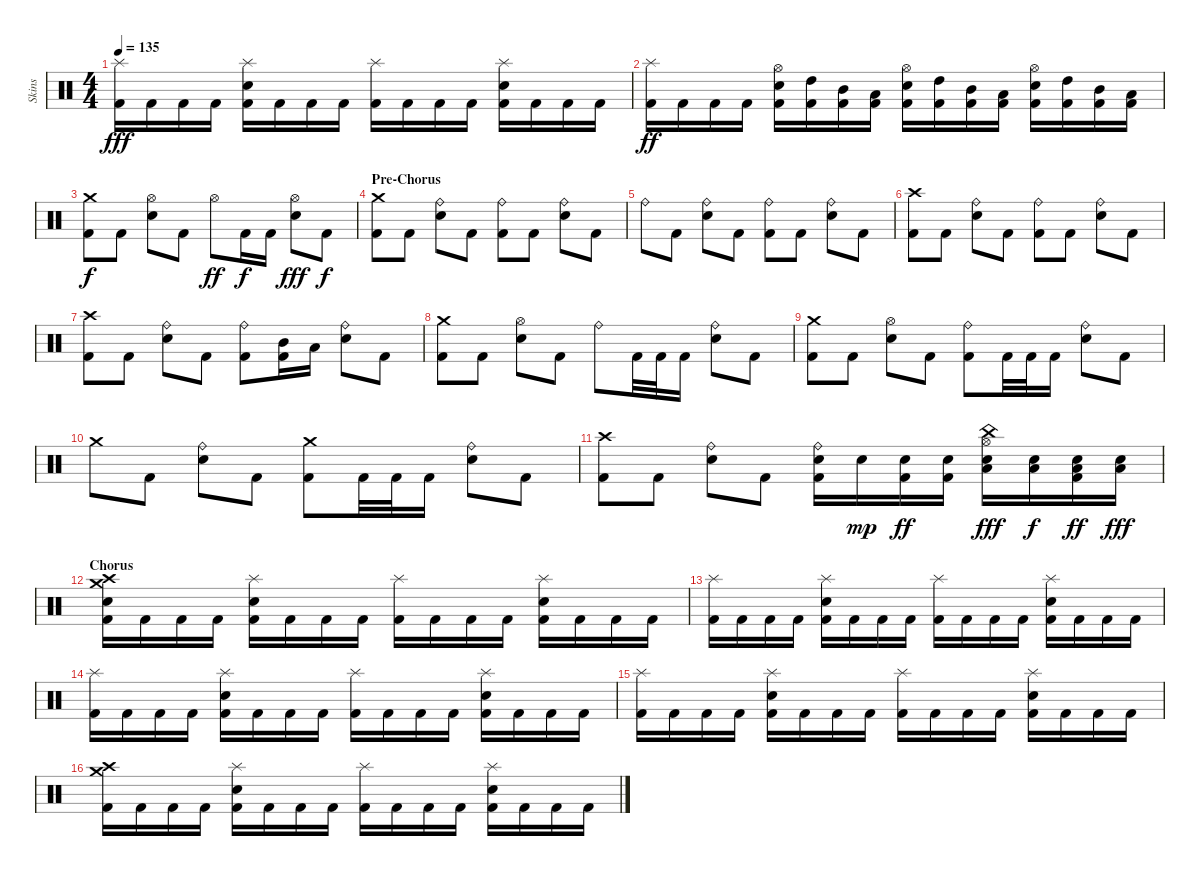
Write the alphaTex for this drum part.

\track ("Skins" "Skins") {instrument percussion}
\staff {score}
\articulation defaults
\ts (4 4)
\tempo 135
\clef neutral
\ks c
("Splash (hit)" "Kick (hit) 2").16{dy fff} "Kick (hit) 2".16 "Kick (hit) 2".16 "Kick (hit) 2".16 ("Splash (hit)" "Snare (hit) 2" "Kick (hit) 2").16 "Kick (hit) 2".16 "Kick (hit) 2".16 "Kick (hit) 2".16 ("Splash (hit)" "Kick (hit) 2").16 "Kick (hit) 2".16 "Kick (hit) 2".16 "Kick (hit) 2".16 ("Splash (hit)" "Snare (hit) 2" "Kick (hit) 2").16 "Kick (hit) 2".16 "Kick (hit) 2".16 "Kick (hit) 2".16 |
("Splash (hit)" "Kick (hit) 2").16{dy ff} "Kick (hit) 2".16 "Kick (hit) 2".16 "Kick (hit) 2".16 ("Hi-Hat (open)" "Snare (hit) 2" "Kick (hit) 2").16 ("High Tom (hit)" "Kick (hit) 2").16 ("Mid Tom (hit)" "Kick (hit) 2").16 ("Low Tom (hit)" "Kick (hit) 2").16 ("Hi-Hat (open)" "Snare (hit) 2" "Kick (hit) 2").16 ("High Tom (hit)" "Kick (hit) 2").16 ("Mid Tom (hit)" "Kick (hit) 2").16 ("Low Tom (hit)" "Kick (hit) 2").16 ("Hi-Hat (open)" "Snare (hit) 2" "Kick (hit) 2").16 ("High Tom (hit)" "Kick (hit) 2").16 ("Mid Tom (hit)" "Kick (hit) 2").16 ("Low Tom (hit)" "Kick (hit) 2").16 |
("Crash medium (hit)" "Kick (hit) 2").8{dy f} "Kick (hit) 2".8 ("Hi-Hat (open)" "Snare (hit) 2").8 "Kick (hit) 2".8 "Hi-Hat (open)".8{dy ff} "Kick (hit) 2".16{dy f} "Kick (hit) 2".16 ("Hi-Hat (open)" "Snare (hit) 2").8{dy fff} "Kick (hit) 2".8{dy f} |
\section ("" "Pre-Chorus")
("Crash medium (hit)" "Kick (hit) 2").8 "Kick (hit) 2".8 ("Ride (bell)" "Snare (hit) 2").8 "Kick (hit) 2".8 ("Ride (bell)" "Kick (hit) 2").8 "Kick (hit) 2".8 ("Ride (bell)" "Snare (hit) 2").8 "Kick (hit) 2".8 |
"Ride (bell)".8 "Kick (hit) 2".8 ("Ride (bell)" "Snare (hit) 2").8 "Kick (hit) 2".8 ("Ride (bell)" "Kick (hit) 2").8 "Kick (hit) 2".8 ("Ride (bell)" "Snare (hit) 2").8 "Kick (hit) 2".8 |
("Crash high (hit)" "Kick (hit) 2").8 "Kick (hit) 2".8 ("Ride (bell)" "Snare (hit) 2").8 "Kick (hit) 2".8 ("Ride (bell)" "Kick (hit) 2").8 "Kick (hit) 2".8 ("Ride (bell)" "Snare (hit) 2").8 "Kick (hit) 2".8 |
("Crash high (hit)" "Kick (hit) 2").8 "Kick (hit) 2".8 ("Ride (bell)" "Snare (hit) 2").8 "Kick (hit) 2".8 ("Ride (bell)" "Kick (hit) 2").8 ("Mid Tom (hit)" "Kick (hit) 2").16 "Low Tom (hit)".16 ("Ride (bell)" "Snare (hit) 2").8 "Kick (hit) 2".8 |
("Crash medium (hit)" "Kick (hit) 2").8 "Kick (hit) 2".8 ("Hi-Hat (open)" "Snare (hit) 2").8 "Kick (hit) 2".8 "Ride (bell)".8 "Kick (hit) 2".32 "Kick (hit) 2".32 "Kick (hit) 2".16 ("Ride (bell)" "Snare (hit) 2").8 "Kick (hit) 2".8 |
("Crash medium (hit)" "Kick (hit) 2").8 "Kick (hit) 2".8 ("Hi-Hat (open)" "Snare (hit) 2").8 "Kick (hit) 2".8 ("Ride (bell)" "Kick (hit) 2").8 "Kick (hit) 2".32 "Kick (hit) 2".32 "Kick (hit) 2".16 ("Ride (bell)" "Snare (hit) 2").8 "Kick (hit) 2".8 |
"Crash medium (hit)".8 "Kick (hit) 2".8 ("Ride (bell)" "Snare (hit) 2").8 "Kick (hit) 2".8 ("Crash medium (hit)" "Kick (hit) 2").8 "Kick (hit) 2".32 "Kick (hit) 2".32 "Kick (hit) 2".16 ("Ride (bell)" "Snare (hit) 2").8 "Kick (hit) 2".8 |
("Crash high (hit)" "Kick (hit) 2").8 "Kick (hit) 2".8 ("Ride (bell)" "Snare (hit) 2").8 "Kick (hit) 2".8 ("Ride (bell)" "Snare (hit) 2" "Kick (hit) 2").16 "Snare (hit) 2".16{dy mp} ("Snare (hit) 2" "Kick (hit) 2").16{dy ff} ("Snare (hit) 2" "Kick (hit) 2").16 ("Hi-Hat (open)" "China (hit)" "Low Tom (hit)" "Snare (hit) 2").16{dy fff} ("Low Tom (hit)" "Snare (hit) 2").16{dy f} ("Low Tom (hit)" "Snare (hit) 2" "Kick (hit) 2").16{dy ff} ("Low Tom (hit)" "Snare (hit) 2").16{dy fff} |
\section ("" "Chorus")
("Crash medium (hit)" "Crash high (hit)" "Snare (hit) 2" "Kick (hit) 2").16 "Kick (hit) 2".16 "Kick (hit) 2".16 "Kick (hit) 2".16 ("Splash (hit)" "Snare (hit) 2" "Kick (hit) 2").16 "Kick (hit) 2".16 "Kick (hit) 2".16 "Kick (hit) 2".16 ("Splash (hit)" "Kick (hit) 2").16 "Kick (hit) 2".16 "Kick (hit) 2".16 "Kick (hit) 2".16 ("Splash (hit)" "Snare (hit) 2" "Kick (hit) 2").16 "Kick (hit) 2".16 "Kick (hit) 2".16 "Kick (hit) 2".16 |
("Splash (hit)" "Kick (hit) 2").16 "Kick (hit) 2".16 "Kick (hit) 2".16 "Kick (hit) 2".16 ("Splash (hit)" "Snare (hit) 2" "Kick (hit) 2").16 "Kick (hit) 2".16 "Kick (hit) 2".16 "Kick (hit) 2".16 ("Splash (hit)" "Kick (hit) 2").16 "Kick (hit) 2".16 "Kick (hit) 2".16 "Kick (hit) 2".16 ("Splash (hit)" "Snare (hit) 2" "Kick (hit) 2").16 "Kick (hit) 2".16 "Kick (hit) 2".16 "Kick (hit) 2".16 |
("Splash (hit)" "Kick (hit) 2").16 "Kick (hit) 2".16 "Kick (hit) 2".16 "Kick (hit) 2".16 ("Splash (hit)" "Snare (hit) 2" "Kick (hit) 2").16 "Kick (hit) 2".16 "Kick (hit) 2".16 "Kick (hit) 2".16 ("Splash (hit)" "Kick (hit) 2").16 "Kick (hit) 2".16 "Kick (hit) 2".16 "Kick (hit) 2".16 ("Splash (hit)" "Snare (hit) 2" "Kick (hit) 2").16 "Kick (hit) 2".16 "Kick (hit) 2".16 "Kick (hit) 2".16 |
("Splash (hit)" "Kick (hit) 2").16 "Kick (hit) 2".16 "Kick (hit) 2".16 "Kick (hit) 2".16 ("Splash (hit)" "Snare (hit) 2" "Kick (hit) 2").16 "Kick (hit) 2".16 "Kick (hit) 2".16 "Kick (hit) 2".16 ("Splash (hit)" "Kick (hit) 2").16 "Kick (hit) 2".16 "Kick (hit) 2".16 "Kick (hit) 2".16 ("Splash (hit)" "Snare (hit) 2" "Kick (hit) 2").16 "Kick (hit) 2".16 "Kick (hit) 2".16 "Kick (hit) 2".16 |
("Crash medium (hit)" "Crash high (hit)" "Kick (hit) 2").16 "Kick (hit) 2".16 "Kick (hit) 2".16 "Kick (hit) 2".16 ("Splash (hit)" "Snare (hit) 2" "Kick (hit) 2").16 "Kick (hit) 2".16 "Kick (hit) 2".16 "Kick (hit) 2".16 ("Splash (hit)" "Kick (hit) 2").16 "Kick (hit) 2".16 "Kick (hit) 2".16 "Kick (hit) 2".16 ("Splash (hit)" "Snare (hit) 2" "Kick (hit) 2").16 "Kick (hit) 2".16 "Kick (hit) 2".16 "Kick (hit) 2".16
